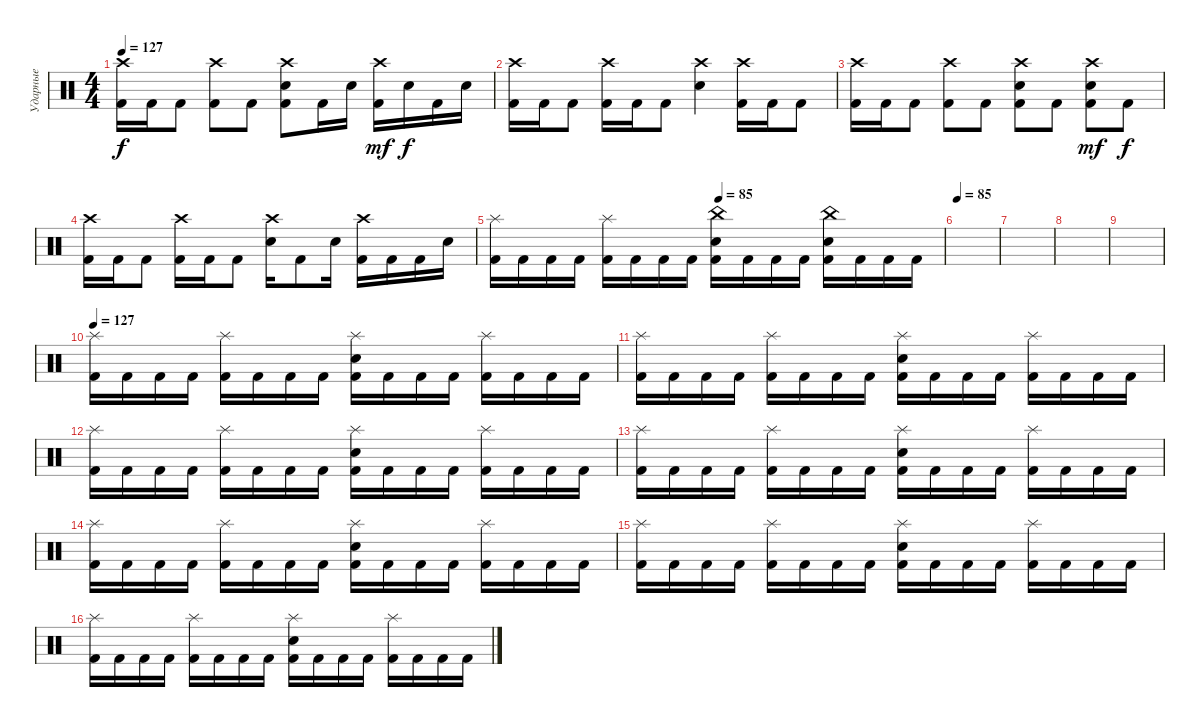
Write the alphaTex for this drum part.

\track ("Ударные" "Ударные") {instrument percussion bank 1}
\staff {score}
\articulation defaults
\ts (4 4)
\tempo 127
\clef neutral
\ks c
("Crash high (hit)" "Kick (hit) 2").16{dy f} "Kick (hit) 2".16 "Kick (hit) 2".8 ("Crash high (hit)" "Kick (hit) 2").8 "Kick (hit) 2".8 ("Crash high (hit)" "Electric Snare (hit)" "Kick (hit) 2").8 "Kick (hit) 2".16 "Electric Snare (hit)".16 ("Crash high (hit)" "Kick (hit) 2").16{dy mf} "Electric Snare (hit)".16{dy f} "Kick (hit) 2".16 "Electric Snare (hit)".16 |
("Crash high (hit)" "Kick (hit) 2").16 "Kick (hit) 2".16 "Kick (hit) 2".8 ("Crash high (hit)" "Kick (hit) 2").16 "Kick (hit) 2".16 "Kick (hit) 2".8 ("Crash high (hit)" "Electric Snare (hit)").4 ("Crash high (hit)" "Kick (hit) 2").16 "Kick (hit) 2".16 "Kick (hit) 2".8 |
("Crash high (hit)" "Kick (hit) 2").16 "Kick (hit) 2".16 "Kick (hit) 2".8 ("Crash high (hit)" "Kick (hit) 2").8 "Kick (hit) 2".8 ("Crash high (hit)" "Electric Snare (hit)" "Kick (hit) 2").8 "Kick (hit) 2".8 ("Crash high (hit)" "Electric Snare (hit)" "Kick (hit) 2").8{dy mf} "Kick (hit) 2".8{dy f} |
("Crash high (hit)" "Kick (hit) 2").16 "Kick (hit) 2".16 "Kick (hit) 2".8 ("Crash high (hit)" "Kick (hit) 2").16 "Kick (hit) 2".16 "Kick (hit) 2".8 ("Crash high (hit)" "Electric Snare (hit)").16 "Kick (hit) 2".8 "Electric Snare (hit)".16 ("Crash high (hit)" "Kick (hit) 2").16 "Kick (hit) 2".16 "Kick (hit) 2".16 "Electric Snare (hit)".16 |
\tempo (85 0.5)
("Splash (hit)" "Kick (hit) 2").16 "Kick (hit) 2".16 "Kick (hit) 2".16 "Kick (hit) 2".16 ("Splash (hit)" "Kick (hit) 2").16 "Kick (hit) 2".16 "Kick (hit) 2".16 "Kick (hit) 2".16 ("China (hit)" "Electric Snare (hit)" "Kick (hit) 2").16 "Kick (hit) 2".16 "Kick (hit) 2".16 "Kick (hit) 2".16 ("China (hit)" "Electric Snare (hit)" "Kick (hit) 2").16 "Kick (hit) 2".16 "Kick (hit) 2".16 "Kick (hit) 2".16 |
\tempo 85
|
|
|
|
\tempo 127
("Splash (hit)" "Kick (hit) 2").16 "Kick (hit) 2".16 "Kick (hit) 2".16 "Kick (hit) 2".16 ("Splash (hit)" "Kick (hit) 2").16 "Kick (hit) 2".16 "Kick (hit) 2".16 "Kick (hit) 2".16 ("Splash (hit)" "Electric Snare (hit)" "Kick (hit) 2").16 "Kick (hit) 2".16 "Kick (hit) 2".16 "Kick (hit) 2".16 ("Splash (hit)" "Kick (hit) 2").16 "Kick (hit) 2".16 "Kick (hit) 2".16 "Kick (hit) 2".16 |
("Splash (hit)" "Kick (hit) 2").16 "Kick (hit) 2".16 "Kick (hit) 2".16 "Kick (hit) 2".16 ("Splash (hit)" "Kick (hit) 2").16 "Kick (hit) 2".16 "Kick (hit) 2".16 "Kick (hit) 2".16 ("Splash (hit)" "Electric Snare (hit)" "Kick (hit) 2").16 "Kick (hit) 2".16 "Kick (hit) 2".16 "Kick (hit) 2".16 ("Splash (hit)" "Kick (hit) 2").16 "Kick (hit) 2".16 "Kick (hit) 2".16 "Kick (hit) 2".16 |
("Splash (hit)" "Kick (hit) 2").16 "Kick (hit) 2".16 "Kick (hit) 2".16 "Kick (hit) 2".16 ("Splash (hit)" "Kick (hit) 2").16 "Kick (hit) 2".16 "Kick (hit) 2".16 "Kick (hit) 2".16 ("Splash (hit)" "Electric Snare (hit)" "Kick (hit) 2").16 "Kick (hit) 2".16 "Kick (hit) 2".16 "Kick (hit) 2".16 ("Splash (hit)" "Kick (hit) 2").16 "Kick (hit) 2".16 "Kick (hit) 2".16 "Kick (hit) 2".16 |
("Splash (hit)" "Kick (hit) 2").16 "Kick (hit) 2".16 "Kick (hit) 2".16 "Kick (hit) 2".16 ("Splash (hit)" "Kick (hit) 2").16 "Kick (hit) 2".16 "Kick (hit) 2".16 "Kick (hit) 2".16 ("Splash (hit)" "Electric Snare (hit)" "Kick (hit) 2").16 "Kick (hit) 2".16 "Kick (hit) 2".16 "Kick (hit) 2".16 ("Splash (hit)" "Kick (hit) 2").16 "Kick (hit) 2".16 "Kick (hit) 2".16 "Kick (hit) 2".16 |
("Splash (hit)" "Kick (hit) 2").16 "Kick (hit) 2".16 "Kick (hit) 2".16 "Kick (hit) 2".16 ("Splash (hit)" "Kick (hit) 2").16 "Kick (hit) 2".16 "Kick (hit) 2".16 "Kick (hit) 2".16 ("Splash (hit)" "Electric Snare (hit)" "Kick (hit) 2").16 "Kick (hit) 2".16 "Kick (hit) 2".16 "Kick (hit) 2".16 ("Splash (hit)" "Kick (hit) 2").16 "Kick (hit) 2".16 "Kick (hit) 2".16 "Kick (hit) 2".16 |
("Splash (hit)" "Kick (hit) 2").16 "Kick (hit) 2".16 "Kick (hit) 2".16 "Kick (hit) 2".16 ("Splash (hit)" "Kick (hit) 2").16 "Kick (hit) 2".16 "Kick (hit) 2".16 "Kick (hit) 2".16 ("Splash (hit)" "Electric Snare (hit)" "Kick (hit) 2").16 "Kick (hit) 2".16 "Kick (hit) 2".16 "Kick (hit) 2".16 ("Splash (hit)" "Kick (hit) 2").16 "Kick (hit) 2".16 "Kick (hit) 2".16 "Kick (hit) 2".16 |
("Splash (hit)" "Kick (hit) 2").16 "Kick (hit) 2".16 "Kick (hit) 2".16 "Kick (hit) 2".16 ("Splash (hit)" "Kick (hit) 2").16 "Kick (hit) 2".16 "Kick (hit) 2".16 "Kick (hit) 2".16 ("Splash (hit)" "Electric Snare (hit)" "Kick (hit) 2").16 "Kick (hit) 2".16 "Kick (hit) 2".16 "Kick (hit) 2".16 ("Splash (hit)" "Kick (hit) 2").16 "Kick (hit) 2".16 "Kick (hit) 2".16 "Kick (hit) 2".16
